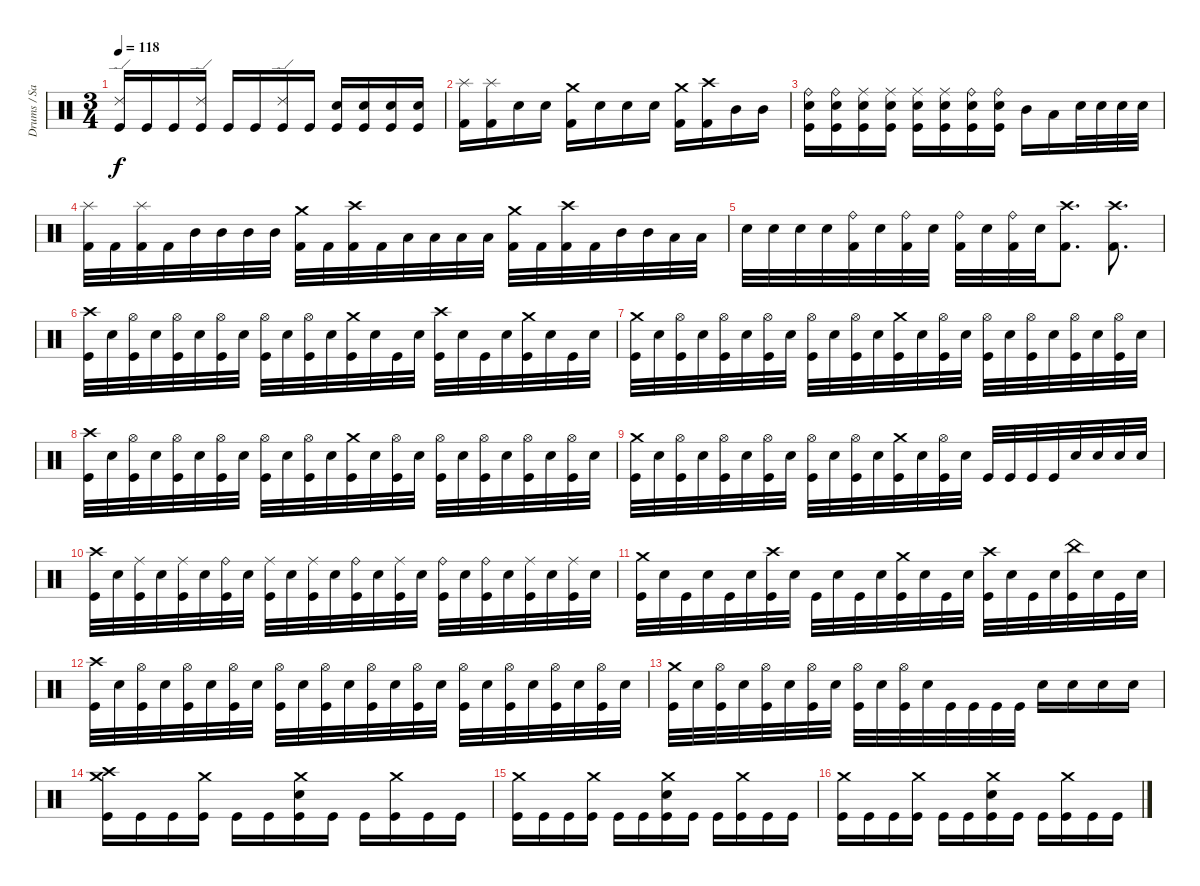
\track ("Drums / Sasha" "Drums / Sa") {instrument percussion}
\staff {score}
\articulation defaults
\ts (3 4)
\tempo 118
\clef neutral
\ks c
("Kick (hit)" "Ride (edge) 2").16{dy f} "Kick (hit)".16 "Kick (hit)".16 ("Kick (hit)" "Ride (edge) 2").16 "Kick (hit)".16 "Kick (hit)".16 ("Kick (hit)" "Ride (edge) 2").16 "Kick (hit)".16 ("Kick (hit)" "Snare (hit) 2").16 ("Kick (hit)" "Snare (hit) 2").16 ("Kick (hit)" "Snare (hit) 2").16 ("Kick (hit)" "Snare (hit) 2").16 |
("Splash (hit)" "Kick (hit) 2").16 ("Splash (hit)" "Kick (hit) 2").16 "Electric Snare (hit)".16 "Electric Snare (hit)".16 ("Crash medium (hit)" "Kick (hit) 2").16 "Electric Snare (hit)".16 "Electric Snare (hit)".16 "Electric Snare (hit)".16 ("Crash medium (hit)" "Kick (hit) 2").16 ("Crash high (hit)" "Kick (hit) 2").16 "Mid Tom (hit)".16 "Mid Tom (hit)".16 |
("Kick (hit)" "Snare (hit) 2" "Ride (bell)").16 ("Kick (hit)" "Snare (hit) 2" "Ride (bell)").16 ("Kick (hit)" "Snare (hit) 2" "Ride (middle)").16 ("Kick (hit)" "Snare (hit) 2" "Ride (middle)").16 ("Kick (hit)" "Snare (hit) 2" "Ride (middle)").16 ("Kick (hit)" "Snare (hit) 2" "Ride (middle)").16 ("Kick (hit)" "Snare (hit) 2" "Ride (bell)").16 ("Kick (hit)" "Snare (hit) 2" "Ride (bell)").16 "Mid Tom (hit)".16 "Low Tom (hit)".16 "Electric Snare (hit)".32 "Electric Snare (hit)".32 "Electric Snare (hit)".32 "Electric Snare (hit)".32 |
("Splash (hit)" "Kick (hit) 2").32 "Kick (hit) 2".32 ("Splash (hit)" "Kick (hit) 2").32 "Kick (hit) 2".32 "Mid Tom (hit)".32 "Mid Tom (hit)".32 "Mid Tom (hit)".32 "Mid Tom (hit)".32 ("Crash medium (hit)" "Kick (hit) 2").32 "Kick (hit) 2".32 ("Crash high (hit)" "Kick (hit) 2").32 "Kick (hit) 2".32 "Low Tom (hit)".32 "Low Tom (hit)".32 "Low Tom (hit)".32 "Low Tom (hit)".32 ("Crash medium (hit)" "Kick (hit) 2").32 "Kick (hit) 2".32 ("Crash high (hit)" "Kick (hit) 2").32 "Kick (hit) 2".32 "Mid Tom (hit)".32 "Mid Tom (hit)".32 "Low Tom (hit)".32 "Low Tom (hit)".32 |
"Electric Snare (hit)".32 "Electric Snare (hit)".32 "Electric Snare (hit)".32 "Electric Snare (hit)".32 ("Ride (bell)" "Kick (hit) 2").32 "Electric Snare (hit)".32 ("Ride (bell)" "Kick (hit) 2").32 "Electric Snare (hit)".32 ("Ride (bell)" "Kick (hit) 2").32 "Electric Snare (hit)".32 ("Ride (bell)" "Kick (hit) 2").32 "Electric Snare (hit)".32 ("Crash high (hit)" "Kick (hit) 2").8{d} ("Crash high (hit)" "Kick (hit) 2").8{d} |
("Crash high (hit)" "Kick (hit)").32 "Snare (hit) 2".32 ("Hi-Hat (open)" "Kick (hit)").32 "Snare (hit) 2".32 ("Hi-Hat (open)" "Kick (hit)").32 "Snare (hit) 2".32 ("Hi-Hat (open)" "Kick (hit)").32 "Snare (hit) 2".32 ("Hi-Hat (open)" "Kick (hit)").32 "Snare (hit) 2".32 ("Hi-Hat (open)" "Kick (hit)").32 "Snare (hit) 2".32 ("Kick (hit)" "Crash medium (hit)").32 "Snare (hit) 2".32 "Kick (hit)".32 "Snare (hit) 2".32 ("Kick (hit)" "Crash high (hit)").32 "Snare (hit) 2".32 "Kick (hit)".32 "Snare (hit) 2".32 ("Kick (hit)" "Crash medium (hit)").32 "Snare (hit) 2".32 "Kick (hit)".32 "Snare (hit) 2".32 |
("Crash medium (hit)" "Kick (hit)").32 "Snare (hit) 2".32 ("Hi-Hat (open)" "Kick (hit)").32 "Snare (hit) 2".32 ("Hi-Hat (open)" "Kick (hit)").32 "Snare (hit) 2".32 ("Hi-Hat (open)" "Kick (hit)").32 "Snare (hit) 2".32 ("Hi-Hat (open)" "Kick (hit)").32 "Snare (hit) 2".32 ("Hi-Hat (open)" "Kick (hit)").32 "Snare (hit) 2".32 ("Crash medium (hit)" "Kick (hit)").32 "Snare (hit) 2".32 ("Hi-Hat (open)" "Kick (hit)").32 "Snare (hit) 2".32 ("Hi-Hat (open)" "Kick (hit)").32 "Snare (hit) 2".32 ("Hi-Hat (open)" "Kick (hit)").32 "Snare (hit) 2".32 ("Hi-Hat (open)" "Kick (hit)").32 "Snare (hit) 2".32 ("Hi-Hat (open)" "Kick (hit)").32 "Snare (hit) 2".32 |
("Crash high (hit)" "Kick (hit)").32 "Snare (hit) 2".32 ("Hi-Hat (open)" "Kick (hit)").32 "Snare (hit) 2".32 ("Hi-Hat (open)" "Kick (hit)").32 "Snare (hit) 2".32 ("Hi-Hat (open)" "Kick (hit)").32 "Snare (hit) 2".32 ("Hi-Hat (open)" "Kick (hit)").32 "Snare (hit) 2".32 ("Hi-Hat (open)" "Kick (hit)").32 "Snare (hit) 2".32 ("Kick (hit)" "Crash medium (hit)").32 "Snare (hit) 2".32 ("Hi-Hat (open)" "Kick (hit)").32 "Snare (hit) 2".32 ("Hi-Hat (open)" "Kick (hit)").32 "Snare (hit) 2".32 ("Hi-Hat (open)" "Kick (hit)").32 "Snare (hit) 2".32 ("Hi-Hat (open)" "Kick (hit)").32 "Snare (hit) 2".32 ("Hi-Hat (open)" "Kick (hit)").32 "Snare (hit) 2".32 |
("Crash medium (hit)" "Kick (hit)").32 "Snare (hit) 2".32 ("Hi-Hat (open)" "Kick (hit)").32 "Snare (hit) 2".32 ("Hi-Hat (open)" "Kick (hit)").32 "Snare (hit) 2".32 ("Hi-Hat (open)" "Kick (hit)").32 "Snare (hit) 2".32 ("Hi-Hat (open)" "Kick (hit)").32 "Snare (hit) 2".32 ("Hi-Hat (open)" "Kick (hit)").32 "Snare (hit) 2".32 ("Crash medium (hit)" "Kick (hit)").32 "Snare (hit) 2".32 ("Hi-Hat (open)" "Kick (hit)").32 "Snare (hit) 2".32 "Kick (hit)".32 "Kick (hit)".32 "Kick (hit)".32 "Kick (hit)".32 "Snare (hit) 2".32 "Snare (hit) 2".32 "Snare (hit) 2".32 "Snare (hit) 2".32 |
("Crash high (hit)" "Kick (hit)").32 "Snare (hit) 2".32 ("Kick (hit)" "Ride (middle)").32 "Snare (hit) 2".32 ("Kick (hit)" "Ride (middle)").32 "Snare (hit) 2".32 ("Kick (hit)" "Ride (bell)").32 "Snare (hit) 2".32 ("Kick (hit)" "Ride (middle)").32 "Snare (hit) 2".32 ("Kick (hit)" "Ride (middle)").32 "Snare (hit) 2".32 ("Kick (hit)" "Ride (bell)").32 "Snare (hit) 2".32 ("Kick (hit)" "Ride (middle)").32 "Snare (hit) 2".32 ("Kick (hit)" "Ride (bell)").32 "Snare (hit) 2".32 ("Kick (hit)" "Ride (bell)").32 "Snare (hit) 2".32 ("Kick (hit)" "Ride (middle)").32 "Snare (hit) 2".32 ("Kick (hit)" "Ride (middle)").32 "Snare (hit) 2".32 |
("Crash medium (hit)" "Kick (hit)").32 "Snare (hit) 2".32 "Kick (hit)".32 "Snare (hit) 2".32 "Kick (hit)".32 "Snare (hit) 2".32 ("Kick (hit)" "Crash high (hit)").32 "Snare (hit) 2".32 "Kick (hit)".32 "Snare (hit) 2".32 "Kick (hit)".32 "Snare (hit) 2".32 ("Crash medium (hit)" "Kick (hit)").32 "Snare (hit) 2".32 "Kick (hit)".32 "Snare (hit) 2".32 ("Kick (hit)" "Crash high (hit)").32 "Snare (hit) 2".32 "Kick (hit)".32 "Snare (hit) 2".32 ("Kick (hit)" "China (hit)").32 "Snare (hit) 2".32 "Kick (hit)".32 "Snare (hit) 2".32 |
("Crash high (hit)" "Kick (hit)").32 "Snare (hit) 2".32 ("Hi-Hat (open)" "Kick (hit)").32 "Snare (hit) 2".32 ("Hi-Hat (open)" "Kick (hit)").32 "Snare (hit) 2".32 ("Hi-Hat (open)" "Kick (hit)").32 "Snare (hit) 2".32 ("Hi-Hat (open)" "Kick (hit)").32 "Snare (hit) 2".32 ("Hi-Hat (open)" "Kick (hit)").32 "Snare (hit) 2".32 ("Kick (hit)" "Hi-Hat (open)").32 "Snare (hit) 2".32 ("Hi-Hat (open)" "Kick (hit)").32 "Snare (hit) 2".32 ("Hi-Hat (open)" "Kick (hit)").32 "Snare (hit) 2".32 ("Hi-Hat (open)" "Kick (hit)").32 "Snare (hit) 2".32 ("Hi-Hat (open)" "Kick (hit)").32 "Snare (hit) 2".32 ("Hi-Hat (open)" "Kick (hit)").32 "Snare (hit) 2".32 |
("Crash medium (hit)" "Kick (hit)").32 "Snare (hit) 2".32 ("Hi-Hat (open)" "Kick (hit)").32 "Snare (hit) 2".32 ("Hi-Hat (open)" "Kick (hit)").32 "Snare (hit) 2".32 ("Hi-Hat (open)" "Kick (hit)").32 "Snare (hit) 2".32 ("Hi-Hat (open)" "Kick (hit)").32 "Snare (hit) 2".32 ("Hi-Hat (open)" "Kick (hit)").32 "Snare (hit) 2".32 "Kick (hit)".32 "Kick (hit)".32 "Kick (hit)".32 "Kick (hit)".32 "Snare (hit) 2".16 "Snare (hit) 2".16 "Snare (hit) 2".16 "Snare (hit) 2".16 |
("Kick (hit)" "Crash high (hit)" "Crash medium (hit)").16 "Kick (hit)".16 "Kick (hit)".16 ("Kick (hit)" "Crash medium (hit)").16 "Kick (hit)".16 "Kick (hit)".16 ("Kick (hit)" "Crash medium (hit)" "Snare (hit) 2").16 "Kick (hit)".16 "Kick (hit)".16 ("Kick (hit)" "Crash medium (hit)").16 "Kick (hit)".16 "Kick (hit)".16 |
("Kick (hit)" "Crash medium (hit)").16 "Kick (hit)".16 "Kick (hit)".16 ("Kick (hit)" "Crash medium (hit)").16 "Kick (hit)".16 "Kick (hit)".16 ("Kick (hit)" "Crash medium (hit)" "Snare (hit) 2").16 "Kick (hit)".16 "Kick (hit)".16 ("Kick (hit)" "Crash medium (hit)").16 "Kick (hit)".16 "Kick (hit)".16 |
("Kick (hit)" "Crash medium (hit)").16 "Kick (hit)".16 "Kick (hit)".16 ("Kick (hit)" "Crash medium (hit)").16 "Kick (hit)".16 "Kick (hit)".16 ("Kick (hit)" "Crash medium (hit)" "Snare (hit) 2").16 "Kick (hit)".16 "Kick (hit)".16 ("Kick (hit)" "Crash medium (hit)").16 "Kick (hit)".16 "Kick (hit)".16
